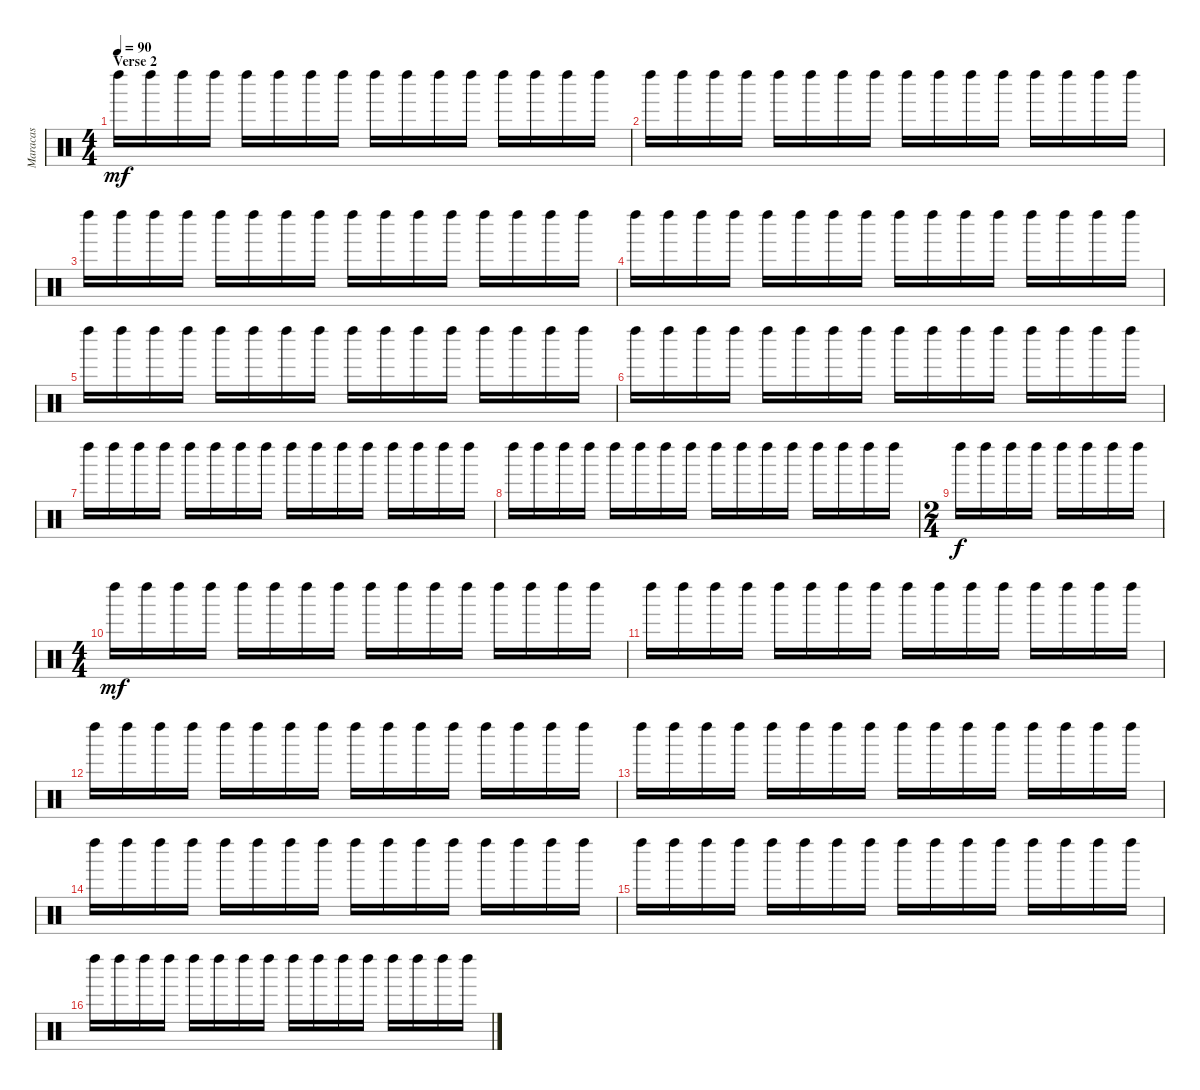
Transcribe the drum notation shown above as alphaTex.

\track ("Maracas" "Maracas") {instrument percussion}
\staff {score}
\articulation defaults
\ts (4 4)
\section ("" "Verse 2")
\tempo 90
\clef neutral
\ks c "Left Maraca (hit)".16{dy mf} "Left Maraca (hit)".16 "Left Maraca (hit)".16 "Left Maraca (hit)".16 "Left Maraca (hit)".16 "Left Maraca (hit)".16 "Left Maraca (hit)".16 "Left Maraca (hit)".16 "Left Maraca (hit)".16 "Left Maraca (hit)".16 "Left Maraca (hit)".16 "Left Maraca (hit)".16 "Left Maraca (hit)".16 "Left Maraca (hit)".16 "Left Maraca (hit)".16 "Left Maraca (hit)".16
|
"Left Maraca (hit)".16 "Left Maraca (hit)".16 "Left Maraca (hit)".16 "Left Maraca (hit)".16 "Left Maraca (hit)".16 "Left Maraca (hit)".16 "Left Maraca (hit)".16 "Left Maraca (hit)".16 "Left Maraca (hit)".16 "Left Maraca (hit)".16 "Left Maraca (hit)".16 "Left Maraca (hit)".16 "Left Maraca (hit)".16 "Left Maraca (hit)".16 "Left Maraca (hit)".16 "Left Maraca (hit)".16 |
"Left Maraca (hit)".16 "Left Maraca (hit)".16 "Left Maraca (hit)".16 "Left Maraca (hit)".16 "Left Maraca (hit)".16 "Left Maraca (hit)".16 "Left Maraca (hit)".16 "Left Maraca (hit)".16 "Left Maraca (hit)".16 "Left Maraca (hit)".16 "Left Maraca (hit)".16 "Left Maraca (hit)".16 "Left Maraca (hit)".16 "Left Maraca (hit)".16 "Left Maraca (hit)".16 "Left Maraca (hit)".16 |
"Left Maraca (hit)".16 "Left Maraca (hit)".16 "Left Maraca (hit)".16 "Left Maraca (hit)".16 "Left Maraca (hit)".16 "Left Maraca (hit)".16 "Left Maraca (hit)".16 "Left Maraca (hit)".16 "Left Maraca (hit)".16 "Left Maraca (hit)".16 "Left Maraca (hit)".16 "Left Maraca (hit)".16 "Left Maraca (hit)".16 "Left Maraca (hit)".16 "Left Maraca (hit)".16 "Left Maraca (hit)".16 |
"Left Maraca (hit)".16 "Left Maraca (hit)".16 "Left Maraca (hit)".16 "Left Maraca (hit)".16 "Left Maraca (hit)".16 "Left Maraca (hit)".16 "Left Maraca (hit)".16 "Left Maraca (hit)".16 "Left Maraca (hit)".16 "Left Maraca (hit)".16 "Left Maraca (hit)".16 "Left Maraca (hit)".16 "Left Maraca (hit)".16 "Left Maraca (hit)".16 "Left Maraca (hit)".16 "Left Maraca (hit)".16 |
"Left Maraca (hit)".16 "Left Maraca (hit)".16 "Left Maraca (hit)".16 "Left Maraca (hit)".16 "Left Maraca (hit)".16 "Left Maraca (hit)".16 "Left Maraca (hit)".16 "Left Maraca (hit)".16 "Left Maraca (hit)".16 "Left Maraca (hit)".16 "Left Maraca (hit)".16 "Left Maraca (hit)".16 "Left Maraca (hit)".16 "Left Maraca (hit)".16 "Left Maraca (hit)".16 "Left Maraca (hit)".16 |
"Left Maraca (hit)".16 "Left Maraca (hit)".16 "Left Maraca (hit)".16 "Left Maraca (hit)".16 "Left Maraca (hit)".16 "Left Maraca (hit)".16 "Left Maraca (hit)".16 "Left Maraca (hit)".16 "Left Maraca (hit)".16 "Left Maraca (hit)".16 "Left Maraca (hit)".16 "Left Maraca (hit)".16 "Left Maraca (hit)".16 "Left Maraca (hit)".16 "Left Maraca (hit)".16 "Left Maraca (hit)".16 |
"Left Maraca (hit)".16 "Left Maraca (hit)".16 "Left Maraca (hit)".16 "Left Maraca (hit)".16 "Left Maraca (hit)".16 "Left Maraca (hit)".16 "Left Maraca (hit)".16 "Left Maraca (hit)".16 "Left Maraca (hit)".16 "Left Maraca (hit)".16 "Left Maraca (hit)".16 "Left Maraca (hit)".16 "Left Maraca (hit)".16 "Left Maraca (hit)".16 "Left Maraca (hit)".16 "Left Maraca (hit)".16 |
\ts (2 4)
"Left Maraca (hit)".16{dy f} "Left Maraca (hit)".16 "Left Maraca (hit)".16 "Left Maraca (hit)".16 "Left Maraca (hit)".16 "Left Maraca (hit)".16 "Left Maraca (hit)".16 "Left Maraca (hit)".16 |
\ts (4 4)
"Left Maraca (hit)".16{dy mf} "Left Maraca (hit)".16 "Left Maraca (hit)".16 "Left Maraca (hit)".16 "Left Maraca (hit)".16 "Left Maraca (hit)".16 "Left Maraca (hit)".16 "Left Maraca (hit)".16 "Left Maraca (hit)".16 "Left Maraca (hit)".16 "Left Maraca (hit)".16 "Left Maraca (hit)".16 "Left Maraca (hit)".16 "Left Maraca (hit)".16 "Left Maraca (hit)".16 "Left Maraca (hit)".16 |
"Left Maraca (hit)".16 "Left Maraca (hit)".16 "Left Maraca (hit)".16 "Left Maraca (hit)".16 "Left Maraca (hit)".16 "Left Maraca (hit)".16 "Left Maraca (hit)".16 "Left Maraca (hit)".16 "Left Maraca (hit)".16 "Left Maraca (hit)".16 "Left Maraca (hit)".16 "Left Maraca (hit)".16 "Left Maraca (hit)".16 "Left Maraca (hit)".16 "Left Maraca (hit)".16 "Left Maraca (hit)".16 |
"Left Maraca (hit)".16 "Left Maraca (hit)".16 "Left Maraca (hit)".16 "Left Maraca (hit)".16 "Left Maraca (hit)".16 "Left Maraca (hit)".16 "Left Maraca (hit)".16 "Left Maraca (hit)".16 "Left Maraca (hit)".16 "Left Maraca (hit)".16 "Left Maraca (hit)".16 "Left Maraca (hit)".16 "Left Maraca (hit)".16 "Left Maraca (hit)".16 "Left Maraca (hit)".16 "Left Maraca (hit)".16 |
"Left Maraca (hit)".16 "Left Maraca (hit)".16 "Left Maraca (hit)".16 "Left Maraca (hit)".16 "Left Maraca (hit)".16 "Left Maraca (hit)".16 "Left Maraca (hit)".16 "Left Maraca (hit)".16 "Left Maraca (hit)".16 "Left Maraca (hit)".16 "Left Maraca (hit)".16 "Left Maraca (hit)".16 "Left Maraca (hit)".16 "Left Maraca (hit)".16 "Left Maraca (hit)".16 "Left Maraca (hit)".16 |
"Left Maraca (hit)".16 "Left Maraca (hit)".16 "Left Maraca (hit)".16 "Left Maraca (hit)".16 "Left Maraca (hit)".16 "Left Maraca (hit)".16 "Left Maraca (hit)".16 "Left Maraca (hit)".16 "Left Maraca (hit)".16 "Left Maraca (hit)".16 "Left Maraca (hit)".16 "Left Maraca (hit)".16 "Left Maraca (hit)".16 "Left Maraca (hit)".16 "Left Maraca (hit)".16 "Left Maraca (hit)".16 |
"Left Maraca (hit)".16 "Left Maraca (hit)".16 "Left Maraca (hit)".16 "Left Maraca (hit)".16 "Left Maraca (hit)".16 "Left Maraca (hit)".16 "Left Maraca (hit)".16 "Left Maraca (hit)".16 "Left Maraca (hit)".16 "Left Maraca (hit)".16 "Left Maraca (hit)".16 "Left Maraca (hit)".16 "Left Maraca (hit)".16 "Left Maraca (hit)".16 "Left Maraca (hit)".16 "Left Maraca (hit)".16 |
"Left Maraca (hit)".16 "Left Maraca (hit)".16 "Left Maraca (hit)".16 "Left Maraca (hit)".16 "Left Maraca (hit)".16 "Left Maraca (hit)".16 "Left Maraca (hit)".16 "Left Maraca (hit)".16 "Left Maraca (hit)".16 "Left Maraca (hit)".16 "Left Maraca (hit)".16 "Left Maraca (hit)".16 "Left Maraca (hit)".16 "Left Maraca (hit)".16 "Left Maraca (hit)".16 "Left Maraca (hit)".16
